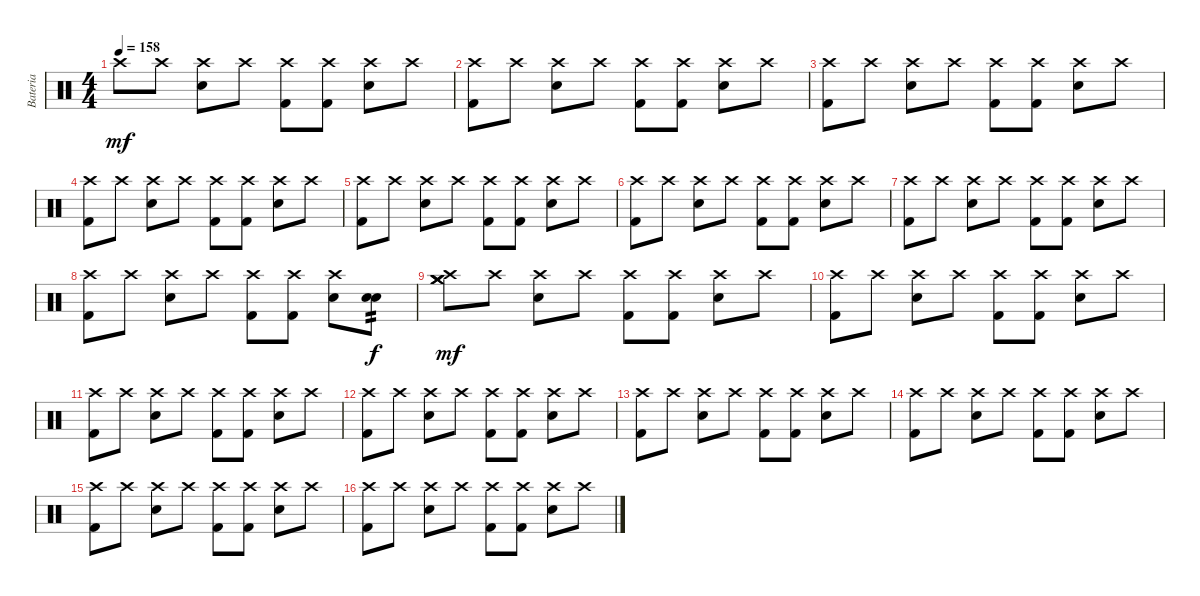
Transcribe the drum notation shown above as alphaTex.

\track ("Bateria" "Bateria") {instrument percussion}
\staff {score}
\articulation defaults
\ts (4 4)
\tempo 158
\clef neutral
\ks c "Crash high (hit)".8{dy mf} "Crash high (hit)".8
("Crash high (hit)" "Electric Snare (hit)").8 "Crash high (hit)".8 ("Crash high (hit)" "Kick (hit) 2").8 ("Crash high (hit)" "Kick (hit) 2").8 ("Crash high (hit)" "Electric Snare (hit)").8 "Crash high (hit)".8 |
("Crash high (hit)" "Kick (hit) 2").8 "Crash high (hit)".8 ("Crash high (hit)" "Electric Snare (hit)").8 "Crash high (hit)".8 ("Crash high (hit)" "Kick (hit) 2").8 ("Crash high (hit)" "Kick (hit) 2").8 ("Crash high (hit)" "Electric Snare (hit)").8 "Crash high (hit)".8 |
("Crash high (hit)" "Kick (hit) 2").8 "Crash high (hit)".8 ("Crash high (hit)" "Electric Snare (hit)").8 "Crash high (hit)".8 ("Crash high (hit)" "Kick (hit) 2").8 ("Crash high (hit)" "Kick (hit) 2").8 ("Crash high (hit)" "Electric Snare (hit)").8 "Crash high (hit)".8 |
("Crash high (hit)" "Kick (hit) 2").8 "Crash high (hit)".8 ("Crash high (hit)" "Electric Snare (hit)").8 "Crash high (hit)".8 ("Crash high (hit)" "Kick (hit) 2").8 ("Crash high (hit)" "Kick (hit) 2").8 ("Crash high (hit)" "Electric Snare (hit)").8 "Crash high (hit)".8 |
("Crash high (hit)" "Kick (hit) 2").8 "Crash high (hit)".8 ("Crash high (hit)" "Electric Snare (hit)").8 "Crash high (hit)".8 ("Crash high (hit)" "Kick (hit) 2").8 ("Crash high (hit)" "Kick (hit) 2").8 ("Crash high (hit)" "Electric Snare (hit)").8 "Crash high (hit)".8 |
("Crash high (hit)" "Kick (hit) 2").8 "Crash high (hit)".8 ("Crash high (hit)" "Electric Snare (hit)").8 "Crash high (hit)".8 ("Crash high (hit)" "Kick (hit) 2").8 ("Crash high (hit)" "Kick (hit) 2").8 ("Crash high (hit)" "Electric Snare (hit)").8 "Crash high (hit)".8 |
("Crash high (hit)" "Kick (hit) 2").8 "Crash high (hit)".8 ("Crash high (hit)" "Electric Snare (hit)").8 "Crash high (hit)".8 ("Crash high (hit)" "Kick (hit) 2").8 ("Crash high (hit)" "Kick (hit) 2").8 ("Crash high (hit)" "Electric Snare (hit)").8 "Crash high (hit)".8 |
("Crash high (hit)" "Kick (hit) 2").8 "Crash high (hit)".8 ("Crash high (hit)" "Electric Snare (hit)").8 "Crash high (hit)".8 ("Crash high (hit)" "Kick (hit) 2").8 ("Crash high (hit)" "Kick (hit) 2").8 ("Crash high (hit)" "Electric Snare (hit)").8 ("Electric Snare (hit)" "Snare (hit) 2").8{tp 2 dy f} |
("Crash high (hit)" "Crash medium (hit)" "Crash medium (hit)" "Crash medium (hit)").8{dy mf} "Crash high (hit)".8 ("Crash high (hit)" "Electric Snare (hit)").8 "Crash high (hit)".8 ("Crash high (hit)" "Kick (hit) 2").8 ("Crash high (hit)" "Kick (hit) 2").8 ("Crash high (hit)" "Electric Snare (hit)").8 "Crash high (hit)".8 |
("Crash high (hit)" "Kick (hit) 2").8 "Crash high (hit)".8 ("Crash high (hit)" "Electric Snare (hit)").8 "Crash high (hit)".8 ("Crash high (hit)" "Kick (hit) 2").8 ("Crash high (hit)" "Kick (hit) 2").8 ("Crash high (hit)" "Electric Snare (hit)").8 "Crash high (hit)".8 |
("Crash high (hit)" "Kick (hit) 2").8 "Crash high (hit)".8 ("Crash high (hit)" "Electric Snare (hit)").8 "Crash high (hit)".8 ("Crash high (hit)" "Kick (hit) 2").8 ("Crash high (hit)" "Kick (hit) 2").8 ("Crash high (hit)" "Electric Snare (hit)").8 "Crash high (hit)".8 |
("Crash high (hit)" "Kick (hit) 2").8 "Crash high (hit)".8 ("Crash high (hit)" "Electric Snare (hit)").8 "Crash high (hit)".8 ("Crash high (hit)" "Kick (hit) 2").8 ("Crash high (hit)" "Kick (hit) 2").8 ("Crash high (hit)" "Electric Snare (hit)").8 "Crash high (hit)".8 |
("Crash high (hit)" "Kick (hit) 2").8 "Crash high (hit)".8 ("Crash high (hit)" "Electric Snare (hit)").8 "Crash high (hit)".8 ("Crash high (hit)" "Kick (hit) 2").8 ("Crash high (hit)" "Kick (hit) 2").8 ("Crash high (hit)" "Electric Snare (hit)").8 "Crash high (hit)".8 |
("Crash high (hit)" "Kick (hit) 2").8 "Crash high (hit)".8 ("Crash high (hit)" "Electric Snare (hit)").8 "Crash high (hit)".8 ("Crash high (hit)" "Kick (hit) 2").8 ("Crash high (hit)" "Kick (hit) 2").8 ("Crash high (hit)" "Electric Snare (hit)").8 "Crash high (hit)".8 |
("Crash high (hit)" "Kick (hit) 2").8 "Crash high (hit)".8 ("Crash high (hit)" "Electric Snare (hit)").8 "Crash high (hit)".8 ("Crash high (hit)" "Kick (hit) 2").8 ("Crash high (hit)" "Kick (hit) 2").8 ("Crash high (hit)" "Electric Snare (hit)").8 "Crash high (hit)".8 |
("Crash high (hit)" "Kick (hit) 2").8 "Crash high (hit)".8 ("Crash high (hit)" "Electric Snare (hit)").8 "Crash high (hit)".8 ("Crash high (hit)" "Kick (hit) 2").8 ("Crash high (hit)" "Kick (hit) 2").8 ("Crash high (hit)" "Electric Snare (hit)").8 "Crash high (hit)".8
